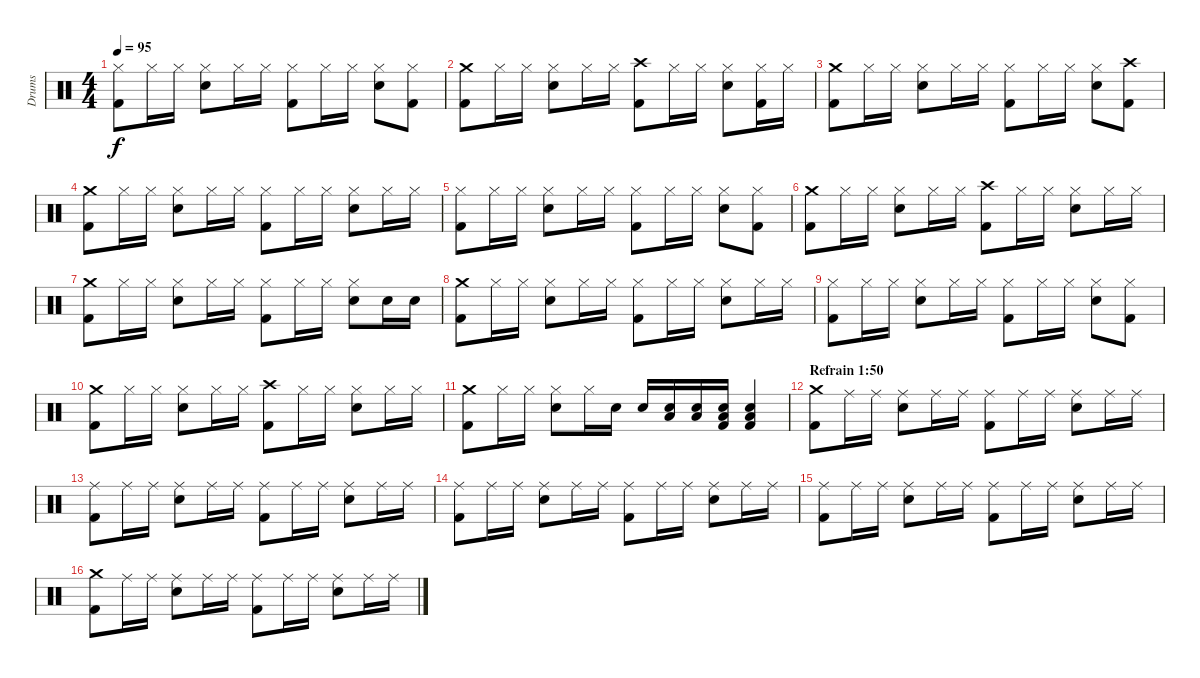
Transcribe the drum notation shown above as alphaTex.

\track ("Drums" "Drums") {instrument percussion}
\staff {score}
\articulation defaults
\ts (4 4)
\tempo 95
\clef neutral
\ks c
("Hi-Hat (closed)" "Kick (hit) 2").8{dy f} "Hi-Hat (closed)".16 "Hi-Hat (closed)".16 ("Hi-Hat (closed)" "Snare (hit) 2").8 "Hi-Hat (closed)".16 "Hi-Hat (closed)".16 ("Hi-Hat (closed)" "Kick (hit) 2").8 "Hi-Hat (closed)".16 "Hi-Hat (closed)".16 ("Hi-Hat (closed)" "Snare (hit) 2").8 ("Hi-Hat (closed)" "Kick (hit) 2").8 |
("Crash medium (hit)" "Kick (hit) 2").8 "Hi-Hat (closed)".16 "Hi-Hat (closed)".16 ("Hi-Hat (closed)" "Snare (hit) 2").8 "Hi-Hat (closed)".16 "Hi-Hat (closed)".16 ("Crash high (hit)" "Kick (hit) 2").8 "Hi-Hat (closed)".16 "Hi-Hat (closed)".16 ("Hi-Hat (closed)" "Snare (hit) 2").8 ("Hi-Hat (closed)" "Kick (hit) 2").16 "Hi-Hat (closed)".16 |
("Crash medium (hit)" "Kick (hit) 2").8 "Hi-Hat (closed)".16 "Hi-Hat (closed)".16 ("Hi-Hat (closed)" "Snare (hit) 2").8 "Hi-Hat (closed)".16 "Hi-Hat (closed)".16 ("Hi-Hat (closed)" "Kick (hit) 2").8 "Hi-Hat (closed)".16 "Hi-Hat (closed)".16 ("Hi-Hat (closed)" "Snare (hit) 2").8 ("Crash high (hit)" "Kick (hit) 2").8 |
("Crash medium (hit)" "Kick (hit) 2").8 "Hi-Hat (closed)".16 "Hi-Hat (closed)".16 ("Hi-Hat (closed)" "Snare (hit) 2").8 "Hi-Hat (closed)".16 "Hi-Hat (closed)".16 ("Hi-Hat (closed)" "Kick (hit) 2").8 "Hi-Hat (closed)".16 "Hi-Hat (closed)".16 ("Hi-Hat (closed)" "Snare (hit) 2").8 "Hi-Hat (closed)".16 "Hi-Hat (closed)".16 |
("Hi-Hat (closed)" "Kick (hit) 2").8 "Hi-Hat (closed)".16 "Hi-Hat (closed)".16 ("Hi-Hat (closed)" "Snare (hit) 2").8 "Hi-Hat (closed)".16 "Hi-Hat (closed)".16 ("Hi-Hat (closed)" "Kick (hit) 2").8 "Hi-Hat (closed)".16 "Hi-Hat (closed)".16 ("Hi-Hat (closed)" "Snare (hit) 2").8 ("Hi-Hat (closed)" "Kick (hit) 2").8 |
("Crash medium (hit)" "Kick (hit) 2").8 "Hi-Hat (closed)".16 "Hi-Hat (closed)".16 ("Hi-Hat (closed)" "Snare (hit) 2").8 "Hi-Hat (closed)".16 "Hi-Hat (closed)".16 ("Crash high (hit)" "Kick (hit) 2").8 "Hi-Hat (closed)".16 "Hi-Hat (closed)".16 ("Hi-Hat (closed)" "Snare (hit) 2").8 "Hi-Hat (closed)".16 "Hi-Hat (closed)".16 |
("Crash medium (hit)" "Kick (hit) 2").8 "Hi-Hat (closed)".16 "Hi-Hat (closed)".16 ("Hi-Hat (closed)" "Snare (hit) 2").8 "Hi-Hat (closed)".16 "Hi-Hat (closed)".16 ("Hi-Hat (closed)" "Kick (hit) 2").8 "Hi-Hat (closed)".16 "Hi-Hat (closed)".16 ("Hi-Hat (closed)" "Snare (hit) 2").8 "Snare (hit) 2".16 "Snare (hit) 2".16 |
("Crash medium (hit)" "Kick (hit) 2").8 "Hi-Hat (closed)".16 "Hi-Hat (closed)".16 ("Hi-Hat (closed)" "Snare (hit) 2").8 "Hi-Hat (closed)".16 "Hi-Hat (closed)".16 ("Hi-Hat (closed)" "Kick (hit) 2").8 "Hi-Hat (closed)".16 "Hi-Hat (closed)".16 ("Hi-Hat (closed)" "Snare (hit) 2").8 "Hi-Hat (closed)".16 "Hi-Hat (closed)".16 |
("Hi-Hat (closed)" "Kick (hit) 2").8 "Hi-Hat (closed)".16 "Hi-Hat (closed)".16 ("Hi-Hat (closed)" "Snare (hit) 2").8 "Hi-Hat (closed)".16 "Hi-Hat (closed)".16 ("Hi-Hat (closed)" "Kick (hit) 2").8 "Hi-Hat (closed)".16 "Hi-Hat (closed)".16 ("Hi-Hat (closed)" "Snare (hit) 2").8 ("Hi-Hat (closed)" "Kick (hit) 2").8 |
("Crash medium (hit)" "Kick (hit) 2").8 "Hi-Hat (closed)".16 "Hi-Hat (closed)".16 ("Hi-Hat (closed)" "Snare (hit) 2").8 "Hi-Hat (closed)".16 "Hi-Hat (closed)".16 ("Crash high (hit)" "Kick (hit) 2").8 "Hi-Hat (closed)".16 "Hi-Hat (closed)".16 ("Hi-Hat (closed)" "Snare (hit) 2").8 "Hi-Hat (closed)".16 "Hi-Hat (closed)".16 |
("Crash medium (hit)" "Kick (hit) 2").8 "Hi-Hat (closed)".16 "Hi-Hat (closed)".16 ("Hi-Hat (closed)" "Snare (hit) 2").8 "Hi-Hat (closed)".16 "Snare (hit) 2".16 "Snare (hit) 2".16 ("Low Floor Tom (hit)" "Snare (hit) 2").16 ("Low Floor Tom (hit)" "Snare (hit) 2").16 ("Low Floor Tom (hit)" "Snare (hit) 2" "Kick (hit) 2").16 ("Low Floor Tom (hit)" "Snare (hit) 2" "Kick (hit) 2").4 |
\section ("" "Refrain 1:50")
("Crash medium (hit)" "Kick (hit) 2").8 "Ride (middle)".16 "Ride (middle)".16 ("Ride (middle)" "Snare (hit) 2").8 "Ride (middle)".16 "Ride (middle)".16 ("Ride (middle)" "Kick (hit) 2").8 "Ride (middle)".16 "Ride (middle)".16 ("Ride (middle)" "Snare (hit) 2").8 "Ride (middle)".16 "Ride (middle)".16 |
("Ride (middle)" "Kick (hit) 2").8 "Ride (middle)".16 "Ride (middle)".16 ("Ride (middle)" "Snare (hit) 2").8 "Ride (middle)".16 "Ride (middle)".16 ("Ride (middle)" "Kick (hit) 2").8 "Ride (middle)".16 "Ride (middle)".16 ("Ride (middle)" "Snare (hit) 2").8 "Ride (middle)".16 "Ride (middle)".16 |
("Ride (middle)" "Kick (hit) 2").8 "Ride (middle)".16 "Ride (middle)".16 ("Ride (middle)" "Snare (hit) 2").8 "Ride (middle)".16 "Ride (middle)".16 ("Ride (middle)" "Kick (hit) 2").8 "Ride (middle)".16 "Ride (middle)".16 ("Ride (middle)" "Snare (hit) 2").8 "Ride (middle)".16 "Ride (middle)".16 |
("Ride (middle)" "Kick (hit) 2").8 "Ride (middle)".16 "Ride (middle)".16 ("Ride (middle)" "Snare (hit) 2").8 "Ride (middle)".16 "Ride (middle)".16 ("Ride (middle)" "Kick (hit) 2").8 "Ride (middle)".16 "Ride (middle)".16 ("Ride (middle)" "Snare (hit) 2").8 "Ride (middle)".16 "Ride (middle)".16 |
("Crash medium (hit)" "Kick (hit) 2").8 "Ride (middle)".16 "Ride (middle)".16 ("Ride (middle)" "Snare (hit) 2").8 "Ride (middle)".16 "Ride (middle)".16 ("Ride (middle)" "Kick (hit) 2").8 "Ride (middle)".16 "Ride (middle)".16 ("Ride (middle)" "Snare (hit) 2").8 "Ride (middle)".16 "Ride (middle)".16
